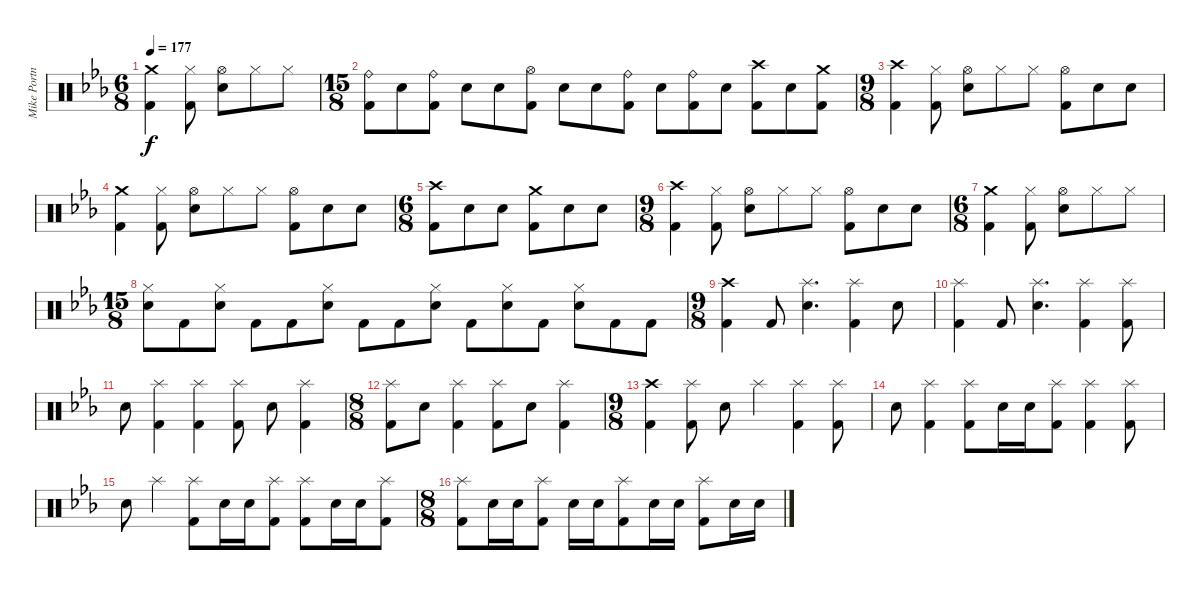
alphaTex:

\track ("Mike Portnoy" "Mike Portn") {instrument percussion}
\staff {score}
\articulation defaults
\ts (6 8)
\tempo 177
\clef neutral
\ks eb
("Crash medium (hit)" "Kick (hit) 2").4{dy f} ("Hi-Hat (closed)" "Kick (hit) 2").8 ("Hi-Hat (open)" "Snare (hit) 2").8 "Hi-Hat (closed)".8 "Hi-Hat (closed)".8 |
\ts (15 8)
("Ride (bell)" "Kick (hit) 2").8 "Snare (hit) 2".8 ("Ride (bell)" "Kick (hit) 2").8 "Snare (hit) 2".8 "Snare (hit) 2".8 ("Hi-Hat (open)" "Kick (hit) 2").8 "Snare (hit) 2".8 "Snare (hit) 2".8 ("Ride (bell)" "Kick (hit) 2").8 "Snare (hit) 2".8 ("Ride (bell)" "Kick (hit) 2").8 "Snare (hit) 2".8 ("Crash high (hit)" "Kick (hit) 2").8 "Snare (hit) 2".8 ("Crash medium (hit)" "Kick (hit) 2").8 |
\ts (9 8)
("Crash high (hit)" "Kick (hit) 2").4 ("Hi-Hat (closed)" "Kick (hit) 2").8 ("Hi-Hat (open)" "Snare (hit) 2").8 "Hi-Hat (closed)".8 "Hi-Hat (closed)".8 ("Hi-Hat (open)" "Kick (hit) 2").8 "Snare (hit) 2".8 "Snare (hit) 2".8 |
("Crash medium (hit)" "Kick (hit) 2").4 ("Hi-Hat (closed)" "Kick (hit) 2").8 ("Hi-Hat (open)" "Snare (hit) 2").8 "Hi-Hat (closed)".8 "Hi-Hat (closed)".8 ("Hi-Hat (open)" "Kick (hit) 2").8 "Snare (hit) 2".8 "Snare (hit) 2".8 |
\ts (6 8)
("Crash high (hit)" "Kick (hit) 2").8 "Snare (hit) 2".8 "Snare (hit) 2".8 ("Crash medium (hit)" "Kick (hit) 2").8 "Snare (hit) 2".8 "Snare (hit) 2".8 |
\ts (9 8)
("Crash high (hit)" "Kick (hit) 2").4 ("Hi-Hat (closed)" "Kick (hit) 2").8 ("Hi-Hat (open)" "Snare (hit) 2").8 "Hi-Hat (closed)".8 "Hi-Hat (closed)".8 ("Hi-Hat (open)" "Kick (hit) 2").8 "Snare (hit) 2".8 "Snare (hit) 2".8 |
\ts (6 8)
("Crash medium (hit)" "Kick (hit) 2").4 ("Hi-Hat (closed)" "Kick (hit) 2").8 ("Hi-Hat (open)" "Snare (hit) 2").8 "Hi-Hat (closed)".8 "Hi-Hat (closed)".8 |
\ts (15 8)
("Hi-Hat (closed)" "Snare (hit) 2").8 "Kick (hit) 2".8 ("Hi-Hat (closed)" "Snare (hit) 2").8 "Kick (hit) 2".8 "Kick (hit) 2".8 ("Hi-Hat (closed)" "Snare (hit) 2").8 "Kick (hit) 2".8 "Kick (hit) 2".8 ("Hi-Hat (closed)" "Snare (hit) 2").8 "Kick (hit) 2".8 ("Hi-Hat (closed)" "Snare (hit) 2").8 "Kick (hit) 2".8 ("Hi-Hat (closed)" "Snare (hit) 2").8 "Kick (hit) 2".8 "Kick (hit) 2".8 |
\ts (9 8)
("Crash high (hit)" "Kick (hit) 2").4 "Kick (hit) 2".8 ("Splash (hit)" "Snare (hit) 2").4{d} ("Splash (hit)" "Kick (hit) 2").4 "Snare (hit) 2".8 |
("Splash (hit)" "Kick (hit) 2").4 "Kick (hit) 2".8 ("Splash (hit)" "Snare (hit) 2").4{d} ("Splash (hit)" "Kick (hit) 2").4 ("Splash (hit)" "Kick (hit) 2").8 |
"Snare (hit) 2".8 ("Splash (hit)" "Kick (hit) 2").4 ("Splash (hit)" "Kick (hit) 2").4 ("Splash (hit)" "Kick (hit) 2").8 "Snare (hit) 2".8 ("Splash (hit)" "Kick (hit) 2").4 |
\ts (8 8)
("Splash (hit)" "Kick (hit) 2").8 "Snare (hit) 2".8 ("Splash (hit)" "Kick (hit) 2").4 ("Splash (hit)" "Kick (hit) 2").8 "Snare (hit) 2".8 ("Splash (hit)" "Kick (hit) 2").4 |
\ts (9 8)
("Crash high (hit)" "Kick (hit) 2").4 ("Splash (hit)" "Kick (hit) 2").8 "Snare (hit) 2".8 "Splash (hit)".4 ("Splash (hit)" "Kick (hit) 2").4 ("Splash (hit)" "Kick (hit) 2").8 |
"Snare (hit) 2".8 ("Splash (hit)" "Kick (hit) 2").4 ("Splash (hit)" "Kick (hit) 2").8 "Snare (hit) 2".16 "Snare (hit) 2".16 ("Splash (hit)" "Kick (hit) 2").8 ("Splash (hit)" "Kick (hit) 2").4 ("Splash (hit)" "Kick (hit) 2").8 |
"Snare (hit) 2".8 "Splash (hit)".4 ("Splash (hit)" "Kick (hit) 2").8 "Snare (hit) 2".16 "Snare (hit) 2".16 ("Splash (hit)" "Kick (hit) 2").8 ("Splash (hit)" "Kick (hit) 2").8 "Snare (hit) 2".16 "Snare (hit) 2".16 ("Splash (hit)" "Kick (hit) 2").8 |
\ts (8 8)
("Splash (hit)" "Kick (hit) 2").8 "Snare (hit) 2".16 "Snare (hit) 2".16 ("Splash (hit)" "Kick (hit) 2").8 "Snare (hit) 2".16 "Snare (hit) 2".16 ("Splash (hit)" "Kick (hit) 2").8 "Snare (hit) 2".16 "Snare (hit) 2".16 ("Splash (hit)" "Kick (hit) 2").8 "Snare (hit) 2".16 "Snare (hit) 2".16
